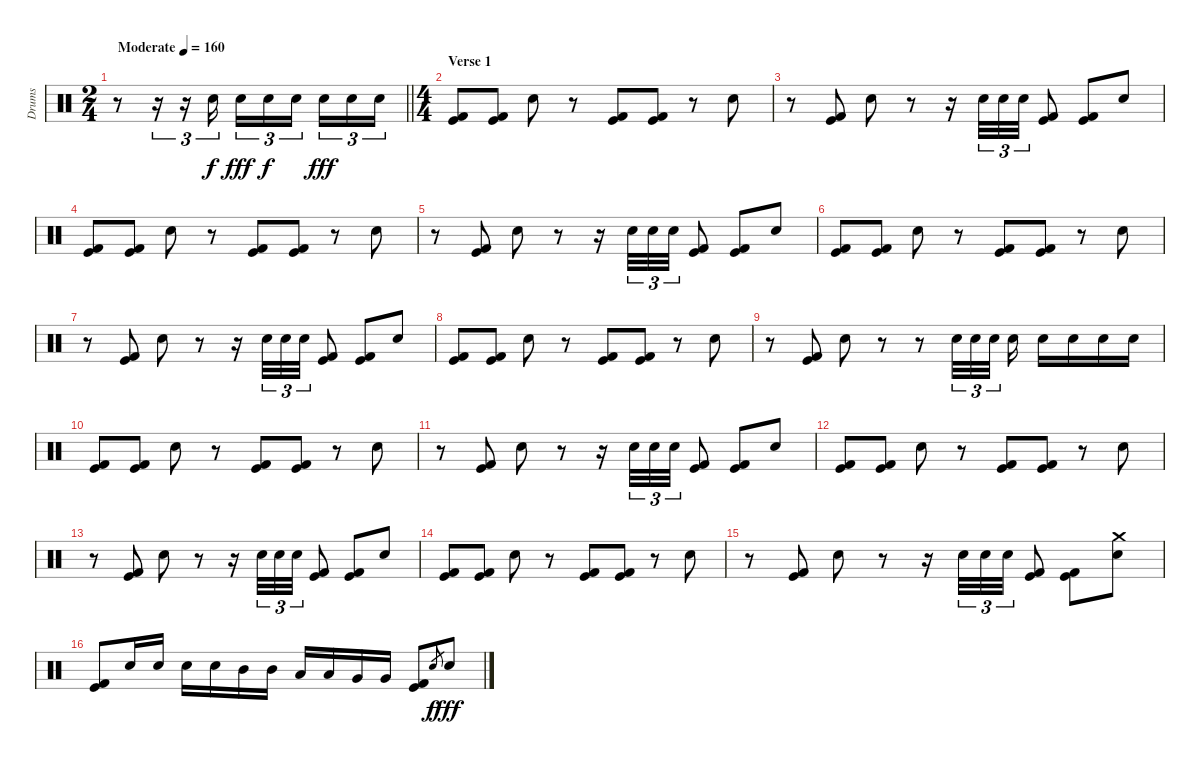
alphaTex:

\track ("Drums" "Drums") {instrument percussion}
\staff {score}
\articulation defaults
\ts (2 4)
\tempo (160 "Moderate")
\clef neutral
\barLineRight lightlight
\ks c
r.8{dy f} r.16{tu (3 2)} r.16{tu (3 2)} "Electric Snare (hit)".16{tu (3 2)} "Electric Snare (hit)".16{tu (3 2) dy fff} "Electric Snare (hit)".16{tu (3 2) dy f} "Electric Snare (hit)".16{tu (3 2) beam splitsecondary} "Electric Snare (hit)".16{tu (3 2) dy fff} "Electric Snare (hit)".16{tu (3 2)} "Electric Snare (hit)".16{tu (3 2)} |
\ts (4 4)
\section ("" "Verse 1")
("Kick (hit)" "Kick (hit) 2").8 ("Kick (hit)" "Kick (hit) 2").8 "Electric Snare (hit)".8 r.8 ("Kick (hit)" "Kick (hit) 2").8 ("Kick (hit)" "Kick (hit) 2").8 r.8 "Electric Snare (hit)".8 |
r.8 ("Kick (hit)" "Kick (hit) 2").8 "Electric Snare (hit)".8 r.8 r.16 "Electric Snare (hit)".32{tu (3 2)} "Electric Snare (hit)".32{tu (3 2)} "Electric Snare (hit)".32{tu (3 2)} ("Kick (hit)" "Kick (hit) 2").8 ("Kick (hit)" "Kick (hit) 2").8 "Electric Snare (hit)".8 |
("Kick (hit)" "Kick (hit) 2").8 ("Kick (hit)" "Kick (hit) 2").8 "Electric Snare (hit)".8 r.8 ("Kick (hit)" "Kick (hit) 2").8 ("Kick (hit)" "Kick (hit) 2").8 r.8 "Electric Snare (hit)".8 |
r.8 ("Kick (hit)" "Kick (hit) 2").8 "Electric Snare (hit)".8 r.8 r.16 "Electric Snare (hit)".32{tu (3 2)} "Electric Snare (hit)".32{tu (3 2)} "Electric Snare (hit)".32{tu (3 2)} ("Kick (hit)" "Kick (hit) 2").8 ("Kick (hit)" "Kick (hit) 2").8 "Electric Snare (hit)".8 |
("Kick (hit)" "Kick (hit) 2").8 ("Kick (hit)" "Kick (hit) 2").8 "Electric Snare (hit)".8 r.8 ("Kick (hit)" "Kick (hit) 2").8 ("Kick (hit)" "Kick (hit) 2").8 r.8 "Electric Snare (hit)".8 |
r.8 ("Kick (hit)" "Kick (hit) 2").8 "Electric Snare (hit)".8 r.8 r.16 "Electric Snare (hit)".32{tu (3 2)} "Electric Snare (hit)".32{tu (3 2)} "Electric Snare (hit)".32{tu (3 2)} ("Kick (hit)" "Kick (hit) 2").8 ("Kick (hit)" "Kick (hit) 2").8 "Electric Snare (hit)".8 |
("Kick (hit)" "Kick (hit) 2").8 ("Kick (hit)" "Kick (hit) 2").8 "Electric Snare (hit)".8 r.8 ("Kick (hit)" "Kick (hit) 2").8 ("Kick (hit)" "Kick (hit) 2").8 r.8 "Electric Snare (hit)".8 |
r.8 ("Kick (hit)" "Kick (hit) 2").8 "Electric Snare (hit)".8 r.8 r.8 "Electric Snare (hit)".32{tu (3 2)} "Electric Snare (hit)".32{tu (3 2)} "Electric Snare (hit)".32{tu (3 2) beam splitsecondary} "Electric Snare (hit)".16 "Electric Snare (hit)".16 "Electric Snare (hit)".16 "Electric Snare (hit)".16 "Electric Snare (hit)".16 |
("Kick (hit)" "Kick (hit) 2").8 ("Kick (hit)" "Kick (hit) 2").8 "Electric Snare (hit)".8 r.8 ("Kick (hit)" "Kick (hit) 2").8 ("Kick (hit)" "Kick (hit) 2").8 r.8 "Electric Snare (hit)".8 |
r.8 ("Kick (hit)" "Kick (hit) 2").8 "Electric Snare (hit)".8 r.8 r.16 "Electric Snare (hit)".32{tu (3 2)} "Electric Snare (hit)".32{tu (3 2)} "Electric Snare (hit)".32{tu (3 2)} ("Kick (hit)" "Kick (hit) 2").8 ("Kick (hit)" "Kick (hit) 2").8 "Electric Snare (hit)".8 |
("Kick (hit)" "Kick (hit) 2").8 ("Kick (hit)" "Kick (hit) 2").8 "Electric Snare (hit)".8 r.8 ("Kick (hit)" "Kick (hit) 2").8 ("Kick (hit)" "Kick (hit) 2").8 r.8 "Electric Snare (hit)".8 |
r.8 ("Kick (hit)" "Kick (hit) 2").8 "Electric Snare (hit)".8 r.8 r.16 "Electric Snare (hit)".32{tu (3 2)} "Electric Snare (hit)".32{tu (3 2)} "Electric Snare (hit)".32{tu (3 2)} ("Kick (hit)" "Kick (hit) 2").8 ("Kick (hit)" "Kick (hit) 2").8 "Electric Snare (hit)".8 |
("Kick (hit)" "Kick (hit) 2").8 ("Kick (hit)" "Kick (hit) 2").8 "Electric Snare (hit)".8 r.8 ("Kick (hit)" "Kick (hit) 2").8 ("Kick (hit)" "Kick (hit) 2").8 r.8 "Electric Snare (hit)".8 |
r.8 ("Kick (hit)" "Kick (hit) 2").8 "Electric Snare (hit)".8 r.8 r.16 "Electric Snare (hit)".32{tu (3 2)} "Electric Snare (hit)".32{tu (3 2)} "Electric Snare (hit)".32{tu (3 2)} ("Kick (hit)" "Kick (hit) 2").8 ("Kick (hit)" "Kick (hit) 2").8 ("Crash medium (hit)" "Electric Snare (hit)").8 |
("Kick (hit)" "Kick (hit) 2").8 "Electric Snare (hit)".16 "Electric Snare (hit)".16 "Electric Snare (hit)".16 "Electric Snare (hit)".16 "Mid Tom (hit)".16 "Mid Tom (hit)".16 "Low Tom (hit)".16 "Low Tom (hit)".16 "Very Low Tom (hit)".16 "Very Low Tom (hit)".16 ("Kick (hit)" "Kick (hit) 2").8 "Electric Snare (hit)".8{gr dy f} "Electric Snare (hit)".8{dy fff}
